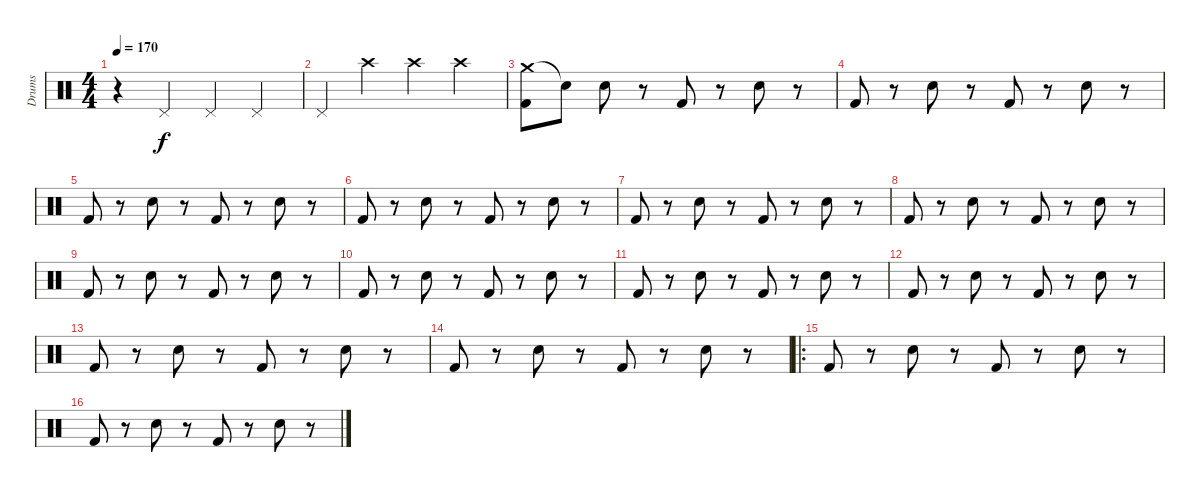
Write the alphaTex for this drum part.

\track ("Drums" "Drums") {instrument percussion}
\staff {score}
\articulation defaults
\ts (4 4)
\tempo 170
\clef neutral
\ks c
r.4{dy f} "Pedal Hi-Hat (hit)".4 "Pedal Hi-Hat (hit)".4 "Pedal Hi-Hat (hit)".4 |
"Pedal Hi-Hat (hit)".4 "Crash high (hit)".4 "Crash high (hit)".4 "Crash high (hit)".4 |
("Crash medium (hit)" "Kick (hit) 2").8 "Snare (hit)"{t}.8 "Electric Snare (hit)".8 r.8 "Kick (hit) 2".8 r.8 "Electric Snare (hit)".8 r.8 |
"Kick (hit) 2".8 r.8 "Electric Snare (hit)".8 r.8 "Kick (hit) 2".8 r.8 "Electric Snare (hit)".8 r.8 |
"Kick (hit) 2".8 r.8 "Electric Snare (hit)".8 r.8 "Kick (hit) 2".8 r.8 "Electric Snare (hit)".8 r.8 |
"Kick (hit) 2".8 r.8 "Electric Snare (hit)".8 r.8 "Kick (hit) 2".8 r.8 "Electric Snare (hit)".8 r.8 |
"Kick (hit) 2".8 r.8 "Electric Snare (hit)".8 r.8 "Kick (hit) 2".8 r.8 "Electric Snare (hit)".8 r.8 |
"Kick (hit) 2".8 r.8 "Electric Snare (hit)".8 r.8 "Kick (hit) 2".8 r.8 "Electric Snare (hit)".8 r.8 |
"Kick (hit) 2".8 r.8 "Electric Snare (hit)".8 r.8 "Kick (hit) 2".8 r.8 "Electric Snare (hit)".8 r.8 |
"Kick (hit) 2".8 r.8 "Electric Snare (hit)".8 r.8 "Kick (hit) 2".8 r.8 "Electric Snare (hit)".8 r.8 |
"Kick (hit) 2".8 r.8 "Electric Snare (hit)".8 r.8 "Kick (hit) 2".8 r.8 "Electric Snare (hit)".8 r.8 |
"Kick (hit) 2".8 r.8 "Electric Snare (hit)".8 r.8 "Kick (hit) 2".8 r.8 "Electric Snare (hit)".8 r.8 |
"Kick (hit) 2".8 r.8 "Electric Snare (hit)".8 r.8 "Kick (hit) 2".8 r.8 "Electric Snare (hit)".8 r.8 |
"Kick (hit) 2".8 r.8 "Electric Snare (hit)".8 r.8 "Kick (hit) 2".8 r.8 "Electric Snare (hit)".8 r.8 |
\ro "Kick (hit) 2".8
r.8 "Electric Snare (hit)".8 r.8 "Kick (hit) 2".8 r.8 "Electric Snare (hit)".8 r.8 |
"Kick (hit) 2".8 r.8 "Electric Snare (hit)".8 r.8 "Kick (hit) 2".8 r.8 "Electric Snare (hit)".8 r.8
